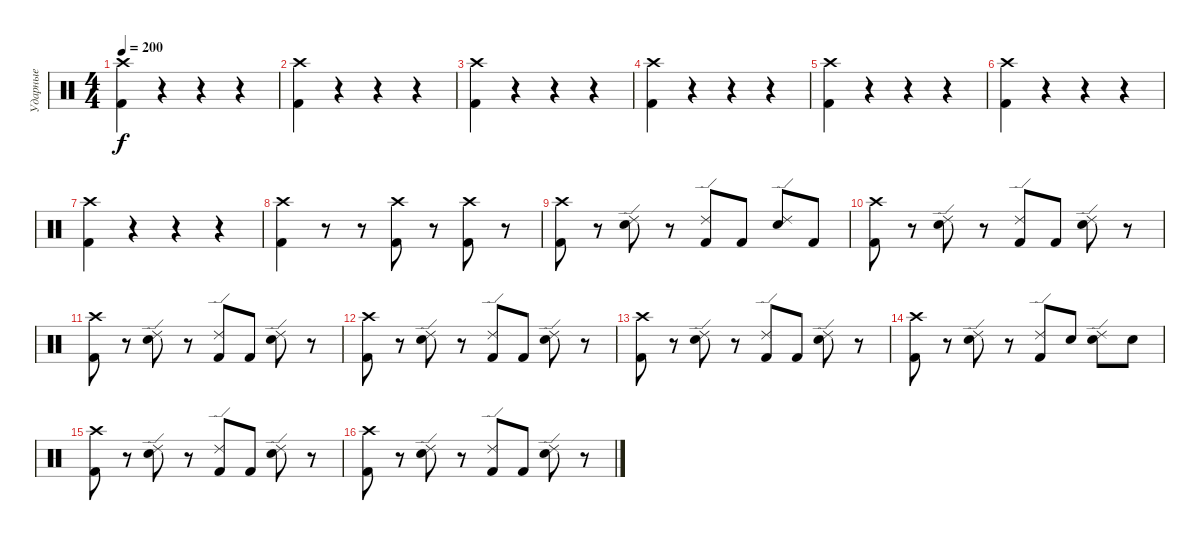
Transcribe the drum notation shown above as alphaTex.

\track ("Ударные" "Ударные") {instrument percussion}
\staff {score}
\articulation defaults
\ts (4 4)
\tempo 200
\clef neutral
\ks c
("Kick (hit) 2" "Crash high (hit)").4{dy f} r.4 r.4 r.4 |
("Kick (hit) 2" "Crash high (hit)").4 r.4 r.4 r.4 |
("Kick (hit) 2" "Crash high (hit)").4 r.4 r.4 r.4 |
("Kick (hit) 2" "Crash high (hit)").4 r.4 r.4 r.4 |
("Kick (hit) 2" "Crash high (hit)").4 r.4 r.4 r.4 |
("Kick (hit) 2" "Crash high (hit)").4 r.4 r.4 r.4 |
("Kick (hit) 2" "Crash high (hit)").4 r.4 r.4 r.4 |
("Kick (hit) 2" "Crash high (hit)").4 r.8 r.8 ("Kick (hit) 2" "Crash high (hit)").8 r.8 ("Kick (hit) 2" "Crash high (hit)").8 r.8 |
("Kick (hit) 2" "Crash high (hit)").8 r.8 ("Electric Snare (hit)" "Ride (edge) 2").8 r.8 ("Kick (hit) 2" "Ride (edge) 2").8 "Kick (hit) 2".8 ("Electric Snare (hit)" "Ride (edge) 2").8 "Kick (hit) 2".8 |
("Kick (hit) 2" "Crash high (hit)").8 r.8 ("Electric Snare (hit)" "Ride (edge) 2").8 r.8 ("Kick (hit) 2" "Ride (edge) 2").8 "Kick (hit) 2".8 ("Electric Snare (hit)" "Ride (edge) 2").8 r.8 |
("Kick (hit) 2" "Crash high (hit)").8 r.8 ("Electric Snare (hit)" "Ride (edge) 2").8 r.8 ("Kick (hit) 2" "Ride (edge) 2").8 "Kick (hit) 2".8 ("Electric Snare (hit)" "Ride (edge) 2").8 r.8 |
("Kick (hit) 2" "Crash high (hit)").8 r.8 ("Electric Snare (hit)" "Ride (edge) 2").8 r.8 ("Kick (hit) 2" "Ride (edge) 2").8 "Kick (hit) 2".8 ("Electric Snare (hit)" "Ride (edge) 2").8 r.8 |
("Kick (hit) 2" "Crash high (hit)").8 r.8 ("Electric Snare (hit)" "Ride (edge) 2").8 r.8 ("Kick (hit) 2" "Ride (edge) 2").8 "Kick (hit) 2".8 ("Electric Snare (hit)" "Ride (edge) 2").8 r.8 |
("Kick (hit) 2" "Crash high (hit)").8 r.8 ("Electric Snare (hit)" "Ride (edge) 2").8 r.8 ("Kick (hit) 2" "Ride (edge) 2").8 "Electric Snare (hit)".8 ("Electric Snare (hit)" "Ride (edge) 2").8 "Electric Snare (hit)".8 |
("Kick (hit) 2" "Crash high (hit)").8 r.8 ("Electric Snare (hit)" "Ride (edge) 2").8 r.8 ("Kick (hit) 2" "Ride (edge) 2").8 "Kick (hit) 2".8 ("Electric Snare (hit)" "Ride (edge) 2").8 r.8 |
("Kick (hit) 2" "Crash high (hit)").8 r.8 ("Electric Snare (hit)" "Ride (edge) 2").8 r.8 ("Kick (hit) 2" "Ride (edge) 2").8 "Kick (hit) 2".8 ("Electric Snare (hit)" "Ride (edge) 2").8 r.8
